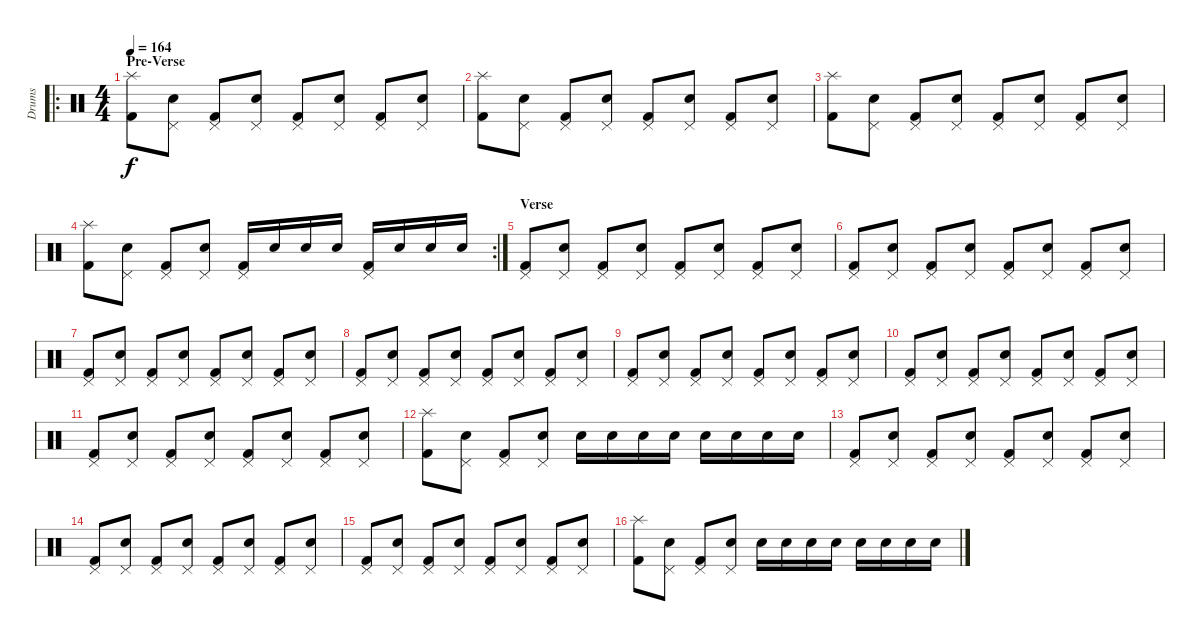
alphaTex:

\track ("Drums" "Drums") {instrument percussion}
\staff {score}
\articulation defaults
\ro
\ts (4 4)
\section ("" "Pre-Verse")
\tempo 164
\clef neutral
\ks c
("Splash (hit)" "Kick (hit) 2").8{dy f} ("Pedal Hi-Hat (hit)" "Electric Snare (hit)").8 ("Pedal Hi-Hat (hit)" "Kick (hit) 2").8 ("Pedal Hi-Hat (hit)" "Electric Snare (hit)").8 ("Pedal Hi-Hat (hit)" "Kick (hit) 2").8 ("Pedal Hi-Hat (hit)" "Electric Snare (hit)").8 ("Pedal Hi-Hat (hit)" "Kick (hit) 2").8 ("Pedal Hi-Hat (hit)" "Electric Snare (hit)").8 |
("Splash (hit)" "Kick (hit) 2").8 ("Pedal Hi-Hat (hit)" "Electric Snare (hit)").8 ("Pedal Hi-Hat (hit)" "Kick (hit) 2").8 ("Pedal Hi-Hat (hit)" "Electric Snare (hit)").8 ("Pedal Hi-Hat (hit)" "Kick (hit) 2").8 ("Pedal Hi-Hat (hit)" "Electric Snare (hit)").8 ("Pedal Hi-Hat (hit)" "Kick (hit) 2").8 ("Pedal Hi-Hat (hit)" "Electric Snare (hit)").8 |
("Splash (hit)" "Kick (hit) 2").8 ("Pedal Hi-Hat (hit)" "Electric Snare (hit)").8 ("Pedal Hi-Hat (hit)" "Kick (hit) 2").8 ("Pedal Hi-Hat (hit)" "Electric Snare (hit)").8 ("Pedal Hi-Hat (hit)" "Kick (hit) 2").8 ("Pedal Hi-Hat (hit)" "Electric Snare (hit)").8 ("Pedal Hi-Hat (hit)" "Kick (hit) 2").8 ("Pedal Hi-Hat (hit)" "Electric Snare (hit)").8 |
\rc 2
("Splash (hit)" "Kick (hit) 2").8 ("Pedal Hi-Hat (hit)" "Electric Snare (hit)").8 ("Pedal Hi-Hat (hit)" "Kick (hit) 2").8 ("Pedal Hi-Hat (hit)" "Electric Snare (hit)").8 ("Pedal Hi-Hat (hit)" "Kick (hit) 2").16 "Electric Snare (hit)".16 "Electric Snare (hit)".16 "Electric Snare (hit)".16 ("Pedal Hi-Hat (hit)" "Kick (hit) 2").16 "Electric Snare (hit)".16 "Electric Snare (hit)".16 "Electric Snare (hit)".16 |
\section ("" "Verse")
("Pedal Hi-Hat (hit)" "Kick (hit) 2").8 ("Pedal Hi-Hat (hit)" "Electric Snare (hit)").8 ("Pedal Hi-Hat (hit)" "Kick (hit) 2").8 ("Pedal Hi-Hat (hit)" "Electric Snare (hit)").8 ("Pedal Hi-Hat (hit)" "Kick (hit) 2").8 ("Pedal Hi-Hat (hit)" "Electric Snare (hit)").8 ("Pedal Hi-Hat (hit)" "Kick (hit) 2").8 ("Pedal Hi-Hat (hit)" "Electric Snare (hit)").8 |
("Pedal Hi-Hat (hit)" "Kick (hit) 2").8 ("Pedal Hi-Hat (hit)" "Electric Snare (hit)").8 ("Pedal Hi-Hat (hit)" "Kick (hit) 2").8 ("Pedal Hi-Hat (hit)" "Electric Snare (hit)").8 ("Pedal Hi-Hat (hit)" "Kick (hit) 2").8 ("Pedal Hi-Hat (hit)" "Electric Snare (hit)").8 ("Pedal Hi-Hat (hit)" "Kick (hit) 2").8 ("Pedal Hi-Hat (hit)" "Electric Snare (hit)").8 |
("Pedal Hi-Hat (hit)" "Kick (hit) 2").8 ("Pedal Hi-Hat (hit)" "Electric Snare (hit)").8 ("Pedal Hi-Hat (hit)" "Kick (hit) 2").8 ("Pedal Hi-Hat (hit)" "Electric Snare (hit)").8 ("Pedal Hi-Hat (hit)" "Kick (hit) 2").8 ("Pedal Hi-Hat (hit)" "Electric Snare (hit)").8 ("Pedal Hi-Hat (hit)" "Kick (hit) 2").8 ("Pedal Hi-Hat (hit)" "Electric Snare (hit)").8 |
("Pedal Hi-Hat (hit)" "Kick (hit) 2").8 ("Pedal Hi-Hat (hit)" "Electric Snare (hit)").8 ("Pedal Hi-Hat (hit)" "Kick (hit) 2").8 ("Pedal Hi-Hat (hit)" "Electric Snare (hit)").8 ("Pedal Hi-Hat (hit)" "Kick (hit) 2").8 ("Pedal Hi-Hat (hit)" "Electric Snare (hit)").8 ("Pedal Hi-Hat (hit)" "Kick (hit) 2").8 ("Pedal Hi-Hat (hit)" "Electric Snare (hit)").8 |
("Pedal Hi-Hat (hit)" "Kick (hit) 2").8 ("Pedal Hi-Hat (hit)" "Electric Snare (hit)").8 ("Pedal Hi-Hat (hit)" "Kick (hit) 2").8 ("Pedal Hi-Hat (hit)" "Electric Snare (hit)").8 ("Pedal Hi-Hat (hit)" "Kick (hit) 2").8 ("Pedal Hi-Hat (hit)" "Electric Snare (hit)").8 ("Pedal Hi-Hat (hit)" "Kick (hit) 2").8 ("Pedal Hi-Hat (hit)" "Electric Snare (hit)").8 |
("Pedal Hi-Hat (hit)" "Kick (hit) 2").8 ("Pedal Hi-Hat (hit)" "Electric Snare (hit)").8 ("Pedal Hi-Hat (hit)" "Kick (hit) 2").8 ("Pedal Hi-Hat (hit)" "Electric Snare (hit)").8 ("Pedal Hi-Hat (hit)" "Kick (hit) 2").8 ("Pedal Hi-Hat (hit)" "Electric Snare (hit)").8 ("Pedal Hi-Hat (hit)" "Kick (hit) 2").8 ("Pedal Hi-Hat (hit)" "Electric Snare (hit)").8 |
("Pedal Hi-Hat (hit)" "Kick (hit) 2").8 ("Pedal Hi-Hat (hit)" "Electric Snare (hit)").8 ("Pedal Hi-Hat (hit)" "Kick (hit) 2").8 ("Pedal Hi-Hat (hit)" "Electric Snare (hit)").8 ("Pedal Hi-Hat (hit)" "Kick (hit) 2").8 ("Pedal Hi-Hat (hit)" "Electric Snare (hit)").8 ("Pedal Hi-Hat (hit)" "Kick (hit) 2").8 ("Pedal Hi-Hat (hit)" "Electric Snare (hit)").8 |
("Splash (hit)" "Kick (hit) 2").8 ("Pedal Hi-Hat (hit)" "Electric Snare (hit)").8 ("Pedal Hi-Hat (hit)" "Kick (hit) 2").8 ("Pedal Hi-Hat (hit)" "Electric Snare (hit)").8 "Electric Snare (hit)".16 "Electric Snare (hit)".16 "Electric Snare (hit)".16 "Electric Snare (hit)".16 "Electric Snare (hit)".16 "Electric Snare (hit)".16 "Electric Snare (hit)".16 "Electric Snare (hit)".16 |
("Pedal Hi-Hat (hit)" "Kick (hit) 2").8 ("Pedal Hi-Hat (hit)" "Electric Snare (hit)").8 ("Pedal Hi-Hat (hit)" "Kick (hit) 2").8 ("Pedal Hi-Hat (hit)" "Electric Snare (hit)").8 ("Pedal Hi-Hat (hit)" "Kick (hit) 2").8 ("Pedal Hi-Hat (hit)" "Electric Snare (hit)").8 ("Pedal Hi-Hat (hit)" "Kick (hit) 2").8 ("Pedal Hi-Hat (hit)" "Electric Snare (hit)").8 |
("Pedal Hi-Hat (hit)" "Kick (hit) 2").8 ("Pedal Hi-Hat (hit)" "Electric Snare (hit)").8 ("Pedal Hi-Hat (hit)" "Kick (hit) 2").8 ("Pedal Hi-Hat (hit)" "Electric Snare (hit)").8 ("Pedal Hi-Hat (hit)" "Kick (hit) 2").8 ("Pedal Hi-Hat (hit)" "Electric Snare (hit)").8 ("Pedal Hi-Hat (hit)" "Kick (hit) 2").8 ("Pedal Hi-Hat (hit)" "Electric Snare (hit)").8 |
("Pedal Hi-Hat (hit)" "Kick (hit) 2").8 ("Pedal Hi-Hat (hit)" "Electric Snare (hit)").8 ("Pedal Hi-Hat (hit)" "Kick (hit) 2").8 ("Pedal Hi-Hat (hit)" "Electric Snare (hit)").8 ("Pedal Hi-Hat (hit)" "Kick (hit) 2").8 ("Pedal Hi-Hat (hit)" "Electric Snare (hit)").8 ("Pedal Hi-Hat (hit)" "Kick (hit) 2").8 ("Pedal Hi-Hat (hit)" "Electric Snare (hit)").8 |
("Splash (hit)" "Kick (hit) 2").8 ("Pedal Hi-Hat (hit)" "Electric Snare (hit)").8 ("Pedal Hi-Hat (hit)" "Kick (hit) 2").8 ("Pedal Hi-Hat (hit)" "Electric Snare (hit)").8 "Electric Snare (hit)".16 "Electric Snare (hit)".16 "Electric Snare (hit)".16 "Electric Snare (hit)".16 "Electric Snare (hit)".16 "Electric Snare (hit)".16 "Electric Snare (hit)".16 "Electric Snare (hit)".16
